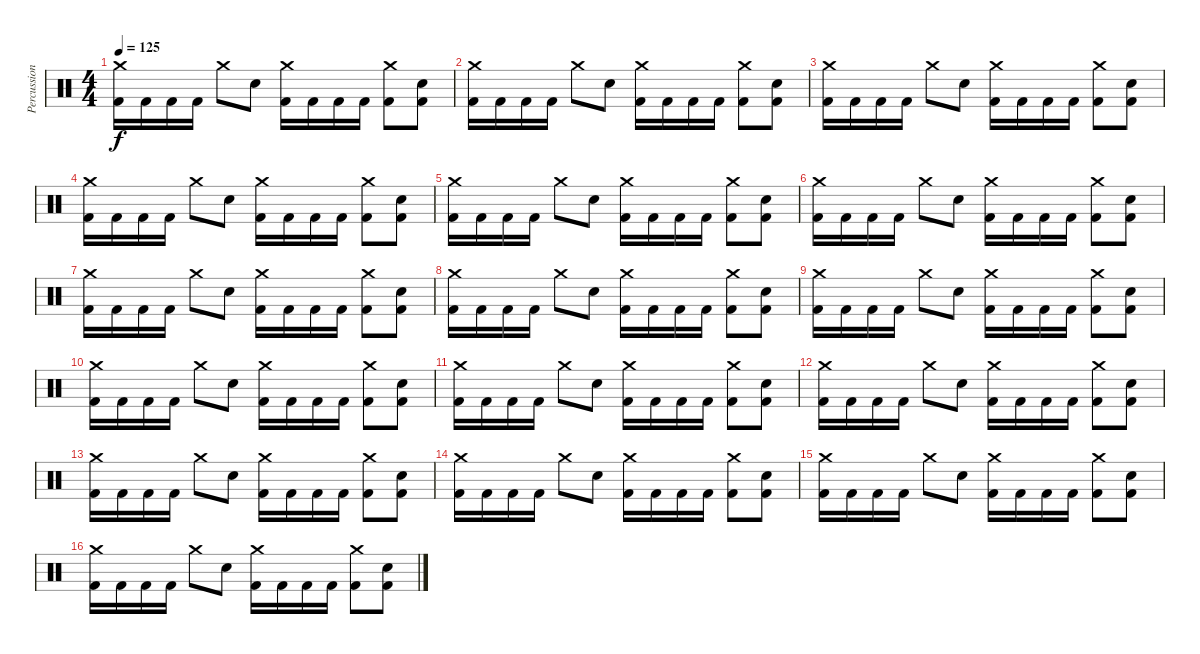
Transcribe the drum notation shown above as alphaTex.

\track ("Percussion" "Percussion") {instrument percussion}
\staff {score}
\articulation defaults
\ts (4 4)
\tempo 125
\clef neutral
\ks c
("Crash medium (hit)" "Kick (hit) 2").16{dy f} "Kick (hit) 2".16 "Kick (hit) 2".16 "Kick (hit) 2".16 "Crash medium (hit)".8 "Snare (hit) 2".8 ("Crash medium (hit)" "Kick (hit) 2").16 "Kick (hit) 2".16 "Kick (hit) 2".16 "Kick (hit) 2".16 ("Crash medium (hit)" "Kick (hit) 2").8 ("Kick (hit) 2" "Snare (hit) 2").8 |
("Crash medium (hit)" "Kick (hit) 2").16 "Kick (hit) 2".16 "Kick (hit) 2".16 "Kick (hit) 2".16 "Crash medium (hit)".8 "Snare (hit) 2".8 ("Crash medium (hit)" "Kick (hit) 2").16 "Kick (hit) 2".16 "Kick (hit) 2".16 "Kick (hit) 2".16 ("Crash medium (hit)" "Kick (hit) 2").8 ("Kick (hit) 2" "Snare (hit) 2").8 |
("Crash medium (hit)" "Kick (hit) 2").16 "Kick (hit) 2".16 "Kick (hit) 2".16 "Kick (hit) 2".16 "Crash medium (hit)".8 "Snare (hit) 2".8 ("Crash medium (hit)" "Kick (hit) 2").16 "Kick (hit) 2".16 "Kick (hit) 2".16 "Kick (hit) 2".16 ("Crash medium (hit)" "Kick (hit) 2").8 ("Kick (hit) 2" "Snare (hit) 2").8 |
("Crash medium (hit)" "Kick (hit) 2").16 "Kick (hit) 2".16 "Kick (hit) 2".16 "Kick (hit) 2".16 "Crash medium (hit)".8 "Snare (hit) 2".8 ("Crash medium (hit)" "Kick (hit) 2").16 "Kick (hit) 2".16 "Kick (hit) 2".16 "Kick (hit) 2".16 ("Crash medium (hit)" "Kick (hit) 2").8 ("Kick (hit) 2" "Snare (hit) 2").8 |
("Crash medium (hit)" "Kick (hit) 2").16 "Kick (hit) 2".16 "Kick (hit) 2".16 "Kick (hit) 2".16 "Crash medium (hit)".8 "Snare (hit) 2".8 ("Crash medium (hit)" "Kick (hit) 2").16 "Kick (hit) 2".16 "Kick (hit) 2".16 "Kick (hit) 2".16 ("Crash medium (hit)" "Kick (hit) 2").8 ("Kick (hit) 2" "Snare (hit) 2").8 |
("Crash medium (hit)" "Kick (hit) 2").16 "Kick (hit) 2".16 "Kick (hit) 2".16 "Kick (hit) 2".16 "Crash medium (hit)".8 "Snare (hit) 2".8 ("Crash medium (hit)" "Kick (hit) 2").16 "Kick (hit) 2".16 "Kick (hit) 2".16 "Kick (hit) 2".16 ("Crash medium (hit)" "Kick (hit) 2").8 ("Kick (hit) 2" "Snare (hit) 2").8 |
("Crash medium (hit)" "Kick (hit) 2").16 "Kick (hit) 2".16 "Kick (hit) 2".16 "Kick (hit) 2".16 "Crash medium (hit)".8 "Snare (hit) 2".8 ("Crash medium (hit)" "Kick (hit) 2").16 "Kick (hit) 2".16 "Kick (hit) 2".16 "Kick (hit) 2".16 ("Crash medium (hit)" "Kick (hit) 2").8 ("Kick (hit) 2" "Snare (hit) 2").8 |
("Crash medium (hit)" "Kick (hit) 2").16 "Kick (hit) 2".16 "Kick (hit) 2".16 "Kick (hit) 2".16 "Crash medium (hit)".8 "Snare (hit) 2".8 ("Crash medium (hit)" "Kick (hit) 2").16 "Kick (hit) 2".16 "Kick (hit) 2".16 "Kick (hit) 2".16 ("Crash medium (hit)" "Kick (hit) 2").8 ("Kick (hit) 2" "Snare (hit) 2").8 |
("Crash medium (hit)" "Kick (hit) 2").16 "Kick (hit) 2".16 "Kick (hit) 2".16 "Kick (hit) 2".16 "Crash medium (hit)".8 "Snare (hit) 2".8 ("Crash medium (hit)" "Kick (hit) 2").16 "Kick (hit) 2".16 "Kick (hit) 2".16 "Kick (hit) 2".16 ("Crash medium (hit)" "Kick (hit) 2").8 ("Kick (hit) 2" "Snare (hit) 2").8 |
("Crash medium (hit)" "Kick (hit) 2").16 "Kick (hit) 2".16 "Kick (hit) 2".16 "Kick (hit) 2".16 "Crash medium (hit)".8 "Snare (hit) 2".8 ("Crash medium (hit)" "Kick (hit) 2").16 "Kick (hit) 2".16 "Kick (hit) 2".16 "Kick (hit) 2".16 ("Crash medium (hit)" "Kick (hit) 2").8 ("Kick (hit) 2" "Snare (hit) 2").8 |
("Crash medium (hit)" "Kick (hit) 2").16 "Kick (hit) 2".16 "Kick (hit) 2".16 "Kick (hit) 2".16 "Crash medium (hit)".8 "Snare (hit) 2".8 ("Crash medium (hit)" "Kick (hit) 2").16 "Kick (hit) 2".16 "Kick (hit) 2".16 "Kick (hit) 2".16 ("Crash medium (hit)" "Kick (hit) 2").8 ("Kick (hit) 2" "Snare (hit) 2").8 |
("Crash medium (hit)" "Kick (hit) 2").16 "Kick (hit) 2".16 "Kick (hit) 2".16 "Kick (hit) 2".16 "Crash medium (hit)".8 "Snare (hit) 2".8 ("Crash medium (hit)" "Kick (hit) 2").16 "Kick (hit) 2".16 "Kick (hit) 2".16 "Kick (hit) 2".16 ("Crash medium (hit)" "Kick (hit) 2").8 ("Kick (hit) 2" "Snare (hit) 2").8 |
("Crash medium (hit)" "Kick (hit) 2").16 "Kick (hit) 2".16 "Kick (hit) 2".16 "Kick (hit) 2".16 "Crash medium (hit)".8 "Snare (hit) 2".8 ("Crash medium (hit)" "Kick (hit) 2").16 "Kick (hit) 2".16 "Kick (hit) 2".16 "Kick (hit) 2".16 ("Crash medium (hit)" "Kick (hit) 2").8 ("Kick (hit) 2" "Snare (hit) 2").8 |
("Crash medium (hit)" "Kick (hit) 2").16 "Kick (hit) 2".16 "Kick (hit) 2".16 "Kick (hit) 2".16 "Crash medium (hit)".8 "Snare (hit) 2".8 ("Crash medium (hit)" "Kick (hit) 2").16 "Kick (hit) 2".16 "Kick (hit) 2".16 "Kick (hit) 2".16 ("Crash medium (hit)" "Kick (hit) 2").8 ("Kick (hit) 2" "Snare (hit) 2").8 |
("Crash medium (hit)" "Kick (hit) 2").16 "Kick (hit) 2".16 "Kick (hit) 2".16 "Kick (hit) 2".16 "Crash medium (hit)".8 "Snare (hit) 2".8 ("Crash medium (hit)" "Kick (hit) 2").16 "Kick (hit) 2".16 "Kick (hit) 2".16 "Kick (hit) 2".16 ("Crash medium (hit)" "Kick (hit) 2").8 ("Kick (hit) 2" "Snare (hit) 2").8 |
("Crash medium (hit)" "Kick (hit) 2").16 "Kick (hit) 2".16 "Kick (hit) 2".16 "Kick (hit) 2".16 "Crash medium (hit)".8 "Snare (hit) 2".8 ("Crash medium (hit)" "Kick (hit) 2").16 "Kick (hit) 2".16 "Kick (hit) 2".16 "Kick (hit) 2".16 ("Crash medium (hit)" "Kick (hit) 2").8 ("Kick (hit) 2" "Snare (hit) 2").8
